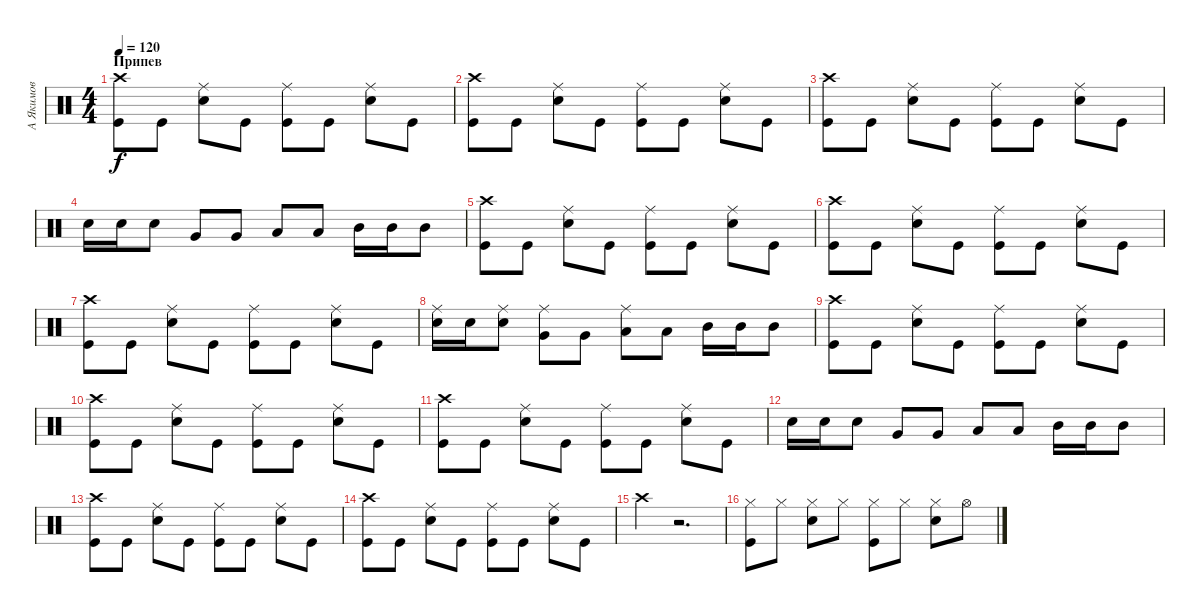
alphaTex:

\track ("А Якимов" "А Якимов") {instrument percussion}
\staff {score}
\articulation defaults
\ts (4 4)
\section ("" "Припев")
\tempo 120
\clef neutral
\ks c
("Crash high (hit)" "Kick (hit)").8{dy f} "Kick (hit)".8 ("Ride (middle)" "Snare (hit) 2").8 "Kick (hit)".8 ("Ride (middle)" "Kick (hit)").8 "Kick (hit)".8 ("Ride (middle)" "Snare (hit) 2").8 "Kick (hit)".8 |
("Crash high (hit)" "Kick (hit)").8 "Kick (hit)".8 ("Ride (middle)" "Snare (hit) 2").8 "Kick (hit)".8 ("Ride (middle)" "Kick (hit)").8 "Kick (hit)".8 ("Ride (middle)" "Snare (hit) 2").8 "Kick (hit)".8 |
("Crash high (hit)" "Kick (hit)").8 "Kick (hit)".8 ("Ride (middle)" "Snare (hit) 2").8 "Kick (hit)".8 ("Ride (middle)" "Kick (hit)").8 "Kick (hit)".8 ("Ride (middle)" "Snare (hit) 2").8 "Kick (hit)".8 |
"Snare (hit) 2".16 "Snare (hit) 2".16 "Snare (hit) 2".8 "Very Low Tom (hit)".8 "Very Low Tom (hit)".8 "Low Tom (hit)".8 "Low Tom (hit)".8 "Mid Tom (hit)".16 "Mid Tom (hit)".16 "Mid Tom (hit)".8 |
("Crash high (hit)" "Kick (hit)").8 "Kick (hit)".8 ("Ride (middle)" "Snare (hit) 2").8 "Kick (hit)".8 ("Ride (middle)" "Kick (hit)").8 "Kick (hit)".8 ("Ride (middle)" "Snare (hit) 2").8 "Kick (hit)".8 |
("Crash high (hit)" "Kick (hit)").8 "Kick (hit)".8 ("Ride (middle)" "Snare (hit) 2").8 "Kick (hit)".8 ("Ride (middle)" "Kick (hit)").8 "Kick (hit)".8 ("Ride (middle)" "Snare (hit) 2").8 "Kick (hit)".8 |
("Crash high (hit)" "Kick (hit)").8 "Kick (hit)".8 ("Ride (middle)" "Snare (hit) 2").8 "Kick (hit)".8 ("Ride (middle)" "Kick (hit)").8 "Kick (hit)".8 ("Ride (middle)" "Snare (hit) 2").8 "Kick (hit)".8 |
("Snare (hit) 2" "Ride (middle)").16 "Snare (hit) 2".16 ("Snare (hit) 2" "Ride (middle)").8 ("Very Low Tom (hit)" "Ride (middle)").8 "Very Low Tom (hit)".8 ("Low Tom (hit)" "Ride (middle)").8 "Low Tom (hit)".8 "Mid Tom (hit)".16 "Mid Tom (hit)".16 "Mid Tom (hit)".8 |
("Crash high (hit)" "Kick (hit)").8 "Kick (hit)".8 ("Ride (middle)" "Snare (hit) 2").8 "Kick (hit)".8 ("Ride (middle)" "Kick (hit)").8 "Kick (hit)".8 ("Ride (middle)" "Snare (hit) 2").8 "Kick (hit)".8 |
("Crash high (hit)" "Kick (hit)").8 "Kick (hit)".8 ("Ride (middle)" "Snare (hit) 2").8 "Kick (hit)".8 ("Ride (middle)" "Kick (hit)").8 "Kick (hit)".8 ("Ride (middle)" "Snare (hit) 2").8 "Kick (hit)".8 |
("Crash high (hit)" "Kick (hit)").8 "Kick (hit)".8 ("Ride (middle)" "Snare (hit) 2").8 "Kick (hit)".8 ("Ride (middle)" "Kick (hit)").8 "Kick (hit)".8 ("Ride (middle)" "Snare (hit) 2").8 "Kick (hit)".8 |
"Snare (hit) 2".16 "Snare (hit) 2".16 "Snare (hit) 2".8 "Very Low Tom (hit)".8 "Very Low Tom (hit)".8 "Low Tom (hit)".8 "Low Tom (hit)".8 "Mid Tom (hit)".16 "Mid Tom (hit)".16 "Mid Tom (hit)".8 |
("Crash high (hit)" "Kick (hit)").8 "Kick (hit)".8 ("Ride (middle)" "Snare (hit) 2").8 "Kick (hit)".8 ("Ride (middle)" "Kick (hit)").8 "Kick (hit)".8 ("Ride (middle)" "Snare (hit) 2").8 "Kick (hit)".8 |
("Crash high (hit)" "Kick (hit)").8 "Kick (hit)".8 ("Ride (middle)" "Snare (hit) 2").8 "Kick (hit)".8 ("Ride (middle)" "Kick (hit)").8 "Kick (hit)".8 ("Ride (middle)" "Snare (hit) 2").8 "Kick (hit)".8 |
"Crash high (hit)".4 r.2{d} |
("Hi-Hat (closed)" "Kick (hit)").8 "Hi-Hat (closed)".8 ("Hi-Hat (closed)" "Snare (hit) 2").8 "Hi-Hat (closed)".8 ("Hi-Hat (closed)" "Kick (hit)").8 "Hi-Hat (closed)".8 ("Snare (hit) 2" "Hi-Hat (closed)").8 "Hi-Hat (open)".8
